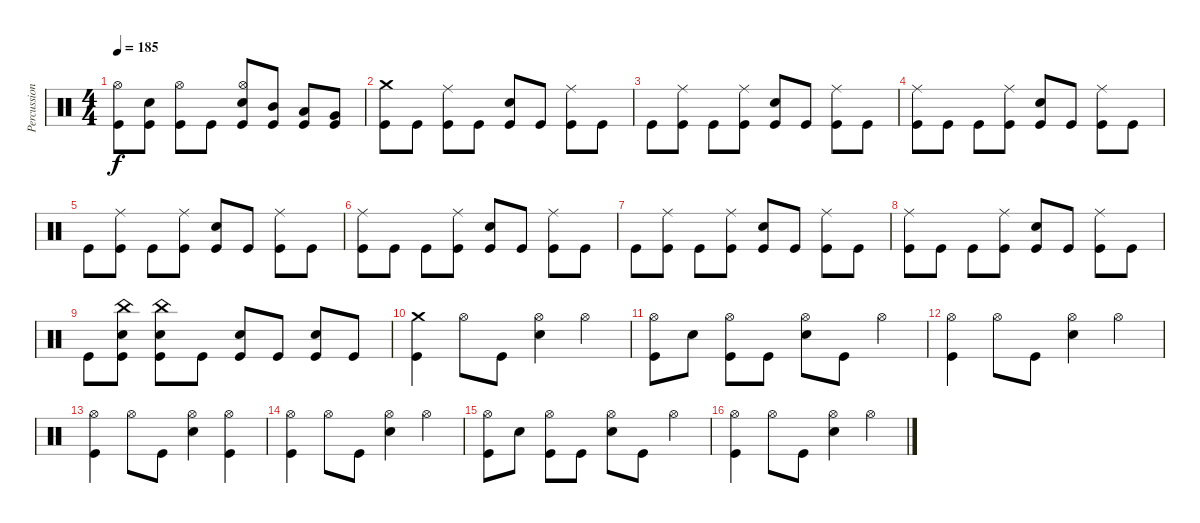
\track ("Percussions" "Percussion") {instrument percussion}
\staff {score}
\articulation defaults
\ts (4 4)
\tempo 185
\clef neutral
\ks c
("Kick (hit)" "Hi-Hat (open)").8{dy f} ("Kick (hit)" "Electric Snare (hit)").8 ("Kick (hit)" "Hi-Hat (open)").8 "Kick (hit)".8 ("Kick (hit)" "Electric Snare (hit)" "Hi-Hat (open)").8 ("Kick (hit)" "Mid Tom (hit)").8 ("Kick (hit)" "Low Tom (hit)").8 ("Kick (hit)" "Very Low Tom (hit)").8 |
("Kick (hit)" "Crash medium (hit)").8 "Kick (hit)".8 ("Kick (hit)" "Ride (middle)").8 "Kick (hit)".8 ("Kick (hit)" "Electric Snare (hit)").8 "Kick (hit)".8 ("Kick (hit)" "Ride (middle)").8 "Kick (hit)".8 |
"Kick (hit)".8 ("Kick (hit)" "Ride (middle)").8 "Kick (hit)".8 ("Kick (hit)" "Ride (middle)").8 ("Kick (hit)" "Electric Snare (hit)").8 "Kick (hit)".8 ("Kick (hit)" "Ride (middle)").8 "Kick (hit)".8 |
("Kick (hit)" "Ride (middle)").8 "Kick (hit)".8 "Kick (hit)".8 ("Kick (hit)" "Ride (middle)").8 ("Kick (hit)" "Electric Snare (hit)").8 "Kick (hit)".8 ("Kick (hit)" "Ride (middle)").8 "Kick (hit)".8 |
"Kick (hit)".8 ("Kick (hit)" "Ride (middle)").8 "Kick (hit)".8 ("Kick (hit)" "Ride (middle)").8 ("Kick (hit)" "Electric Snare (hit)").8 "Kick (hit)".8 ("Kick (hit)" "Ride (middle)").8 "Kick (hit)".8 |
("Kick (hit)" "Ride (middle)").8 "Kick (hit)".8 "Kick (hit)".8 ("Kick (hit)" "Ride (middle)").8 ("Kick (hit)" "Electric Snare (hit)").8 "Kick (hit)".8 ("Kick (hit)" "Ride (middle)").8 "Kick (hit)".8 |
"Kick (hit)".8 ("Kick (hit)" "Ride (middle)").8 "Kick (hit)".8 ("Kick (hit)" "Ride (middle)").8 ("Kick (hit)" "Electric Snare (hit)").8 "Kick (hit)".8 ("Kick (hit)" "Ride (middle)").8 "Kick (hit)".8 |
("Kick (hit)" "Ride (middle)").8 "Kick (hit)".8 "Kick (hit)".8 ("Kick (hit)" "Ride (middle)").8 ("Kick (hit)" "Electric Snare (hit)").8 "Kick (hit)".8 ("Kick (hit)" "Ride (middle)").8 "Kick (hit)".8 |
"Kick (hit)".8 ("Kick (hit)" "Electric Snare (hit)" "China (hit)").8 ("Kick (hit)" "Electric Snare (hit)" "China (hit)").8 "Kick (hit)".8 ("Kick (hit)" "Electric Snare (hit)").8 "Kick (hit)".8 ("Kick (hit)" "Electric Snare (hit)").8 "Kick (hit)".8 |
("Kick (hit)" "Crash medium (hit)").4 "Hi-Hat (open)".8 "Kick (hit)".8 ("Electric Snare (hit)" "Hi-Hat (open)").4 "Hi-Hat (open)".4 |
("Kick (hit)" "Hi-Hat (open)").8 "Electric Snare (hit)".8 ("Kick (hit)" "Hi-Hat (open)").8 "Kick (hit)".8 ("Electric Snare (hit)" "Hi-Hat (open)").8 "Kick (hit)".8 "Hi-Hat (open)".4 |
("Kick (hit)" "Hi-Hat (open)").4 "Hi-Hat (open)".8 "Kick (hit)".8 ("Electric Snare (hit)" "Hi-Hat (open)").4 "Hi-Hat (open)".4 |
("Kick (hit)" "Hi-Hat (open)").4 "Hi-Hat (open)".8 "Kick (hit)".8 ("Electric Snare (hit)" "Hi-Hat (open)").4 ("Kick (hit)" "Hi-Hat (open)").4 |
("Kick (hit)" "Hi-Hat (open)").4 "Hi-Hat (open)".8 "Kick (hit)".8 ("Electric Snare (hit)" "Hi-Hat (open)").4 "Hi-Hat (open)".4 |
("Kick (hit)" "Hi-Hat (open)").8 "Electric Snare (hit)".8 ("Kick (hit)" "Hi-Hat (open)").8 "Kick (hit)".8 ("Electric Snare (hit)" "Hi-Hat (open)").8 "Kick (hit)".8 "Hi-Hat (open)".4 |
("Kick (hit)" "Hi-Hat (open)").4 "Hi-Hat (open)".8 "Kick (hit)".8 ("Electric Snare (hit)" "Hi-Hat (open)").4 "Hi-Hat (open)".4
